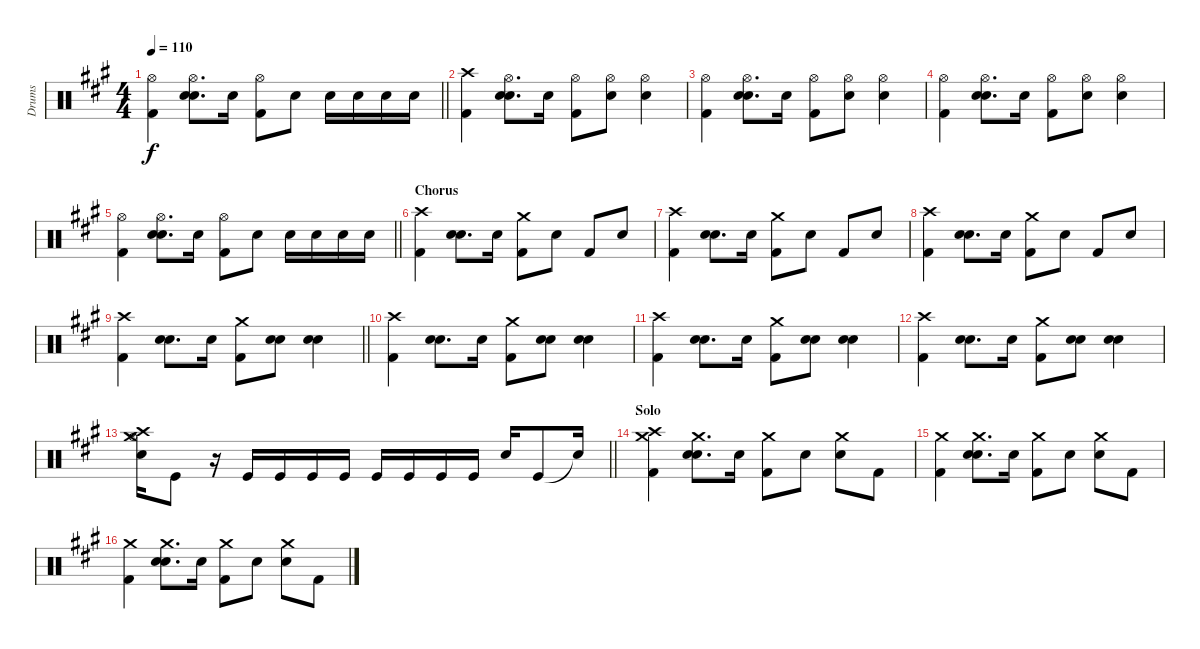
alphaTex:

\track ("Drums" "Drums") {instrument percussion}
\staff {score}
\articulation defaults
\ts (4 4)
\tempo 110
\clef neutral
\barLineRight lightlight
\ks f#minor
("Hi-Hat (open)" "Kick (hit) 2").4{dy f} ("Hi-Hat (open)" "Snare (hit) 2" "Snare (hit) 2").8{d} "Snare (hit) 2".16 ("Hi-Hat (open)" "Kick (hit) 2").8 "Snare (hit) 2".8 "Snare (hit) 2".16 "Snare (hit) 2".16 "Snare (hit) 2".16 "Snare (hit) 2".16 |
\section ("" "")
("Crash high (hit)" "Kick (hit) 2").4 ("Hi-Hat (open)" "Snare (hit) 2" "Snare (hit) 2").8{d} "Snare (hit) 2".16 ("Hi-Hat (open)" "Kick (hit) 2").8 ("Hi-Hat (open)" "Snare (hit) 2").8 ("Hi-Hat (open)" "Snare (hit) 2").4 |
("Hi-Hat (open)" "Kick (hit) 2").4 ("Hi-Hat (open)" "Snare (hit) 2" "Snare (hit) 2").8{d} "Snare (hit) 2".16 ("Hi-Hat (open)" "Kick (hit) 2").8 ("Hi-Hat (open)" "Snare (hit) 2").8 ("Hi-Hat (open)" "Snare (hit) 2").4 |
("Hi-Hat (open)" "Kick (hit) 2").4 ("Hi-Hat (open)" "Snare (hit) 2" "Snare (hit) 2").8{d} "Snare (hit) 2".16 ("Hi-Hat (open)" "Kick (hit) 2").8 ("Hi-Hat (open)" "Snare (hit) 2").8 ("Hi-Hat (open)" "Snare (hit) 2").4 |
\barLineRight lightlight
("Hi-Hat (open)" "Kick (hit) 2").4 ("Hi-Hat (open)" "Snare (hit) 2" "Snare (hit) 2").8{d} "Snare (hit) 2".16 ("Hi-Hat (open)" "Kick (hit) 2").8 "Snare (hit) 2".8 "Snare (hit) 2".16 "Snare (hit) 2".16 "Snare (hit) 2".16 "Snare (hit) 2".16 |
\section ("" "Chorus")
("Crash high (hit)" "Kick (hit) 2").4 ("Snare (hit) 2" "Snare (hit) 2").8{d} "Snare (hit) 2".16 ("Crash medium (hit)" "Kick (hit) 2").8 "Snare (hit) 2".8 "Kick (hit) 2".8 "Snare (hit) 2".8 |
("Crash high (hit)" "Kick (hit) 2").4 ("Snare (hit) 2" "Snare (hit) 2").8{d} "Snare (hit) 2".16 ("Crash medium (hit)" "Kick (hit) 2").8 "Snare (hit) 2".8 "Kick (hit) 2".8 "Snare (hit) 2".8 |
("Crash high (hit)" "Kick (hit) 2").4 ("Snare (hit) 2" "Snare (hit) 2").8{d} "Snare (hit) 2".16 ("Crash medium (hit)" "Kick (hit) 2").8 "Snare (hit) 2".8 "Kick (hit) 2".8 "Snare (hit) 2".8 |
\barLineRight lightlight
("Crash high (hit)" "Kick (hit) 2").4 ("Snare (hit) 2" "Snare (hit) 2").8{d} "Snare (hit) 2".16 ("Crash medium (hit)" "Kick (hit) 2").8 ("Snare (hit) 2" "Snare (hit) 2").8 ("Snare (hit) 2" "Snare (hit) 2").4 |
\section ("" "")
("Crash high (hit)" "Kick (hit) 2").4 ("Snare (hit) 2" "Snare (hit) 2").8{d} "Snare (hit) 2".16 ("Crash medium (hit)" "Kick (hit) 2").8 ("Snare (hit) 2" "Snare (hit) 2").8 ("Snare (hit) 2" "Snare (hit) 2").4 |
("Crash high (hit)" "Kick (hit) 2").4 ("Snare (hit) 2" "Snare (hit) 2").8{d} "Snare (hit) 2".16 ("Crash medium (hit)" "Kick (hit) 2").8 ("Snare (hit) 2" "Snare (hit) 2").8 ("Snare (hit) 2" "Snare (hit) 2").4 |
("Crash high (hit)" "Kick (hit) 2").4 ("Snare (hit) 2" "Snare (hit) 2").8{d} "Snare (hit) 2".16 ("Crash medium (hit)" "Kick (hit) 2").8 ("Snare (hit) 2" "Snare (hit) 2").8 ("Snare (hit) 2" "Snare (hit) 2").4 |
\barLineRight lightlight
("Snare (hit) 2" "Hi-Hat (open)" "Crash high (hit)" "Crash medium (hit)").16 "Kick (hit)".8 r.16 "Kick (hit)".16 "Kick (hit)".16 "Kick (hit)".16 "Kick (hit)".16 "Kick (hit)".16 "Kick (hit)".16 "Kick (hit)".16 "Kick (hit)".16 "Snare (hit) 2".16 "Kick (hit)".8 "Snare (hit)"{t}.16 |
\section ("" "Solo")
("Crash medium (hit)" "Crash high (hit)" "Kick (hit) 2").4 ("Crash medium (hit)" "Snare (hit) 2" "Snare (hit) 2").8{d} "Snare (hit) 2".16 ("Crash medium (hit)" "Kick (hit) 2").8 "Snare (hit) 2".8 ("Crash medium (hit)" "Snare (hit) 2").8 "Kick (hit) 2".8 |
("Crash medium (hit)" "Kick (hit) 2").4 ("Crash medium (hit)" "Snare (hit) 2" "Snare (hit) 2").8{d} "Snare (hit) 2".16 ("Crash medium (hit)" "Kick (hit) 2").8 "Snare (hit) 2".8 ("Crash medium (hit)" "Snare (hit) 2").8 "Kick (hit) 2".8 |
("Crash medium (hit)" "Kick (hit) 2").4 ("Crash medium (hit)" "Snare (hit) 2" "Snare (hit) 2").8{d} "Snare (hit) 2".16 ("Crash medium (hit)" "Kick (hit) 2").8 "Snare (hit) 2".8 ("Crash medium (hit)" "Snare (hit) 2").8 "Kick (hit) 2".8
